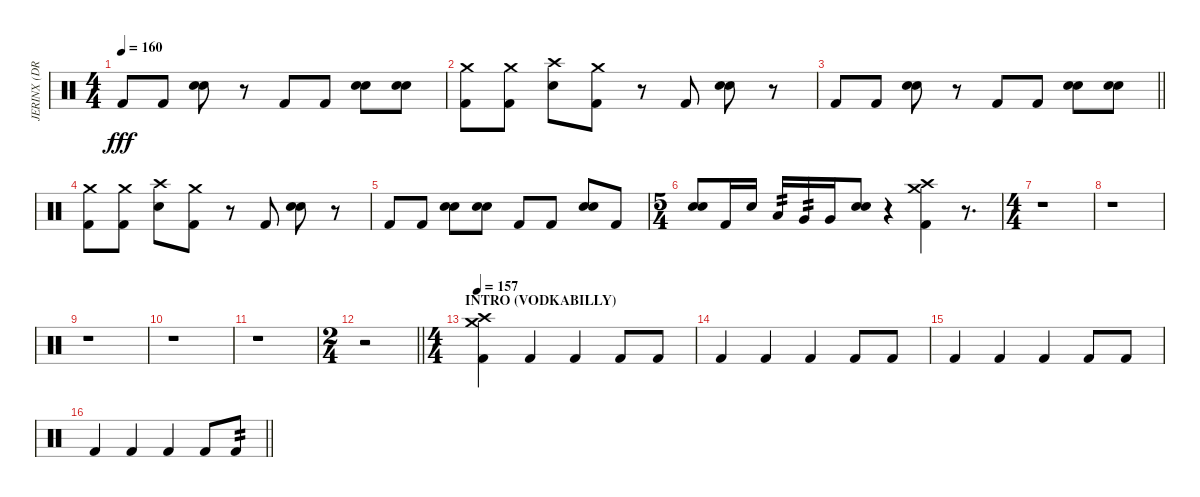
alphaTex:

\track ("JERINX (DRUM)" "JERINX (DR") {instrument percussion}
\staff {score}
\articulation defaults
\ts (4 4)
\tempo 160
\clef neutral
\ks c "Kick (hit) 2".8{dy fff} "Kick (hit) 2".8
("Snare (hit) 2" "Snare (hit) 2").8{bu 240} r.8 "Kick (hit) 2".8 "Kick (hit) 2".8 ("Snare (hit) 2" "Snare (hit) 2").8{bu 240} ("Snare (hit) 2" "Snare (hit) 2").8{bu 240} |
("Kick (hit) 2" "Crash medium (hit)").8 ("Kick (hit) 2" "Crash medium (hit)").8 ("Snare (hit) 2" "Crash high (hit)").8 ("Kick (hit) 2" "Crash medium (hit)").8 r.8 "Kick (hit) 2".8 ("Snare (hit) 2" "Snare (hit) 2").8{bu 240} r.8 |
\barLineRight lightlight "Kick (hit) 2".8 "Kick (hit) 2".8
("Snare (hit) 2" "Snare (hit) 2").8{bu 240} r.8 "Kick (hit) 2".8 "Kick (hit) 2".8 ("Snare (hit) 2" "Snare (hit) 2").8{bu 240} ("Snare (hit) 2" "Snare (hit) 2").8{bu 240} |
("Kick (hit) 2" "Crash medium (hit)").8 ("Kick (hit) 2" "Crash medium (hit)").8 ("Snare (hit) 2" "Crash high (hit)").8 ("Kick (hit) 2" "Crash medium (hit)").8 r.8 "Kick (hit) 2".8 ("Snare (hit) 2" "Snare (hit) 2").8{bu 240} r.8 |
"Kick (hit) 2".8 "Kick (hit) 2".8 ("Snare (hit) 2" "Snare (hit) 2").8{bu 240} ("Snare (hit) 2" "Snare (hit) 2").8{bu 240} "Kick (hit) 2".8 "Kick (hit) 2".8 ("Snare (hit) 2" "Snare (hit) 2").8{bu 240} "Kick (hit) 2".8 |
\ts (5 4)
("Snare (hit) 2" "Snare (hit) 2").8{bu 120} "Kick (hit) 2".16 "Snare (hit) 2".16 "Low Tom (hit)".16{tp 2} "Very Low Tom (hit)".16{tp 2} "Very Low Tom (hit)".16 ("Snare (hit) 2" "Snare (hit) 2").8{bu 120} r.4 ("Kick (hit) 2" "Crash high (hit)" "Crash medium (hit)").4 r.8{d} |
\ts (4 4)
r.1 |
r.1 |
r.1 |
r.1 |
r.1 |
\ts (2 4)
\barLineRight lightlight
r.2 |
\ts (4 4)
\section ("" "INTRO (VODKABILLY)")
\tempo 157
("Kick (hit) 2" "Crash high (hit)" "Crash medium (hit)").4 "Kick (hit) 2".4 "Kick (hit) 2".4 "Kick (hit) 2".8 "Kick (hit) 2".8 |
"Kick (hit) 2".4 "Kick (hit) 2".4 "Kick (hit) 2".4 "Kick (hit) 2".8 "Kick (hit) 2".8 |
"Kick (hit) 2".4 "Kick (hit) 2".4 "Kick (hit) 2".4 "Kick (hit) 2".8 "Kick (hit) 2".8 |
\barLineRight lightlight "Kick (hit) 2".4 "Kick (hit) 2".4 "Kick (hit) 2".4 "Kick (hit) 2".8 "Kick (hit) 2".8{tp 2}
